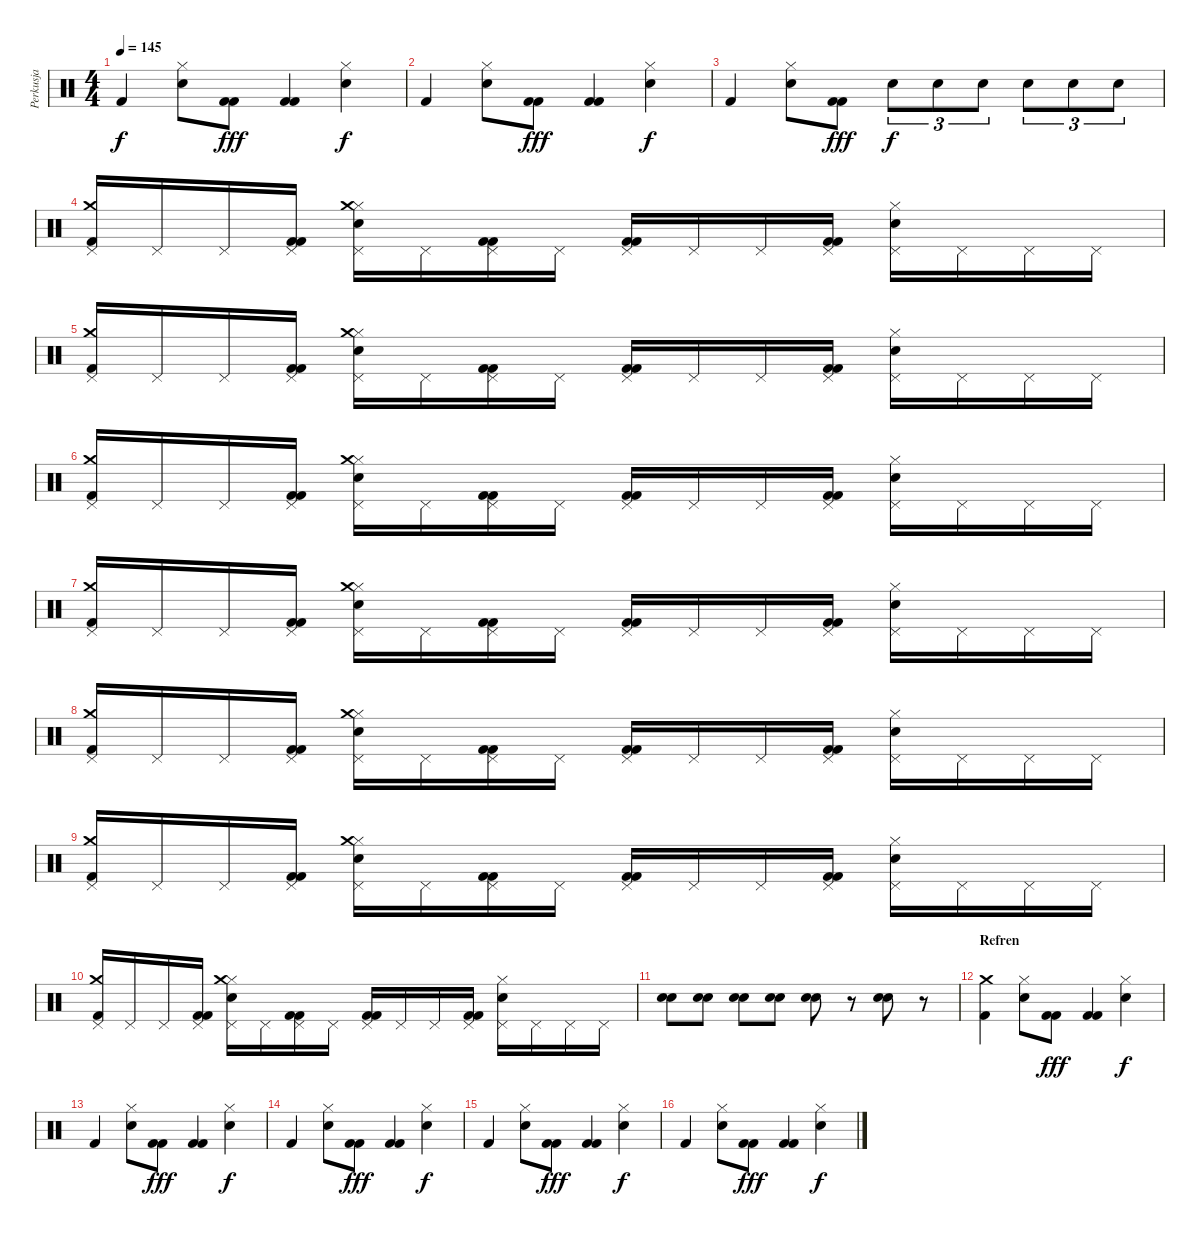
\track ("Perkusja" "Perkusja") {instrument percussion}
\staff {score}
\articulation defaults
\ts (4 4)
\tempo 145
\clef neutral
\ks c "Kick (hit) 2".4{dy f}
("Hi-Hat (closed)" "Snare (hit) 2").8 ("Kick (hit) 2" "Kick (hit) 2").8{dy fff} ("Kick (hit) 2" "Kick (hit) 2").4 ("Hi-Hat (closed)" "Snare (hit) 2").4{dy f} |
"Kick (hit) 2".4 ("Hi-Hat (closed)" "Snare (hit) 2").8 ("Kick (hit) 2" "Kick (hit) 2").8{dy fff} ("Kick (hit) 2" "Kick (hit) 2").4 ("Hi-Hat (closed)" "Snare (hit) 2").4{dy f} |
"Kick (hit) 2".4 ("Hi-Hat (closed)" "Snare (hit) 2").8 ("Kick (hit) 2" "Kick (hit) 2").8{dy fff} "Snare (hit) 2".8{tu (3 2) dy f} "Snare (hit) 2".8{tu (3 2)} "Snare (hit) 2".8{tu (3 2)} "Snare (hit) 2".8{tu (3 2)} "Snare (hit) 2".8{tu (3 2)} "Snare (hit) 2".8{tu (3 2)} |
("Kick (hit) 2" "Crash medium (hit)" "Pedal Hi-Hat (hit)").16 "Pedal Hi-Hat (hit)".16 "Pedal Hi-Hat (hit)".16 ("Kick (hit) 2" "Kick (hit) 2" "Pedal Hi-Hat (hit)").16 ("Hi-Hat (closed)" "Snare (hit) 2" "Crash medium (hit)" "Pedal Hi-Hat (hit)").16 "Pedal Hi-Hat (hit)".16 ("Kick (hit) 2" "Kick (hit) 2" "Pedal Hi-Hat (hit)").16 "Pedal Hi-Hat (hit)".16 ("Kick (hit) 2" "Kick (hit) 2" "Pedal Hi-Hat (hit)").16 "Pedal Hi-Hat (hit)".16 "Pedal Hi-Hat (hit)".16 ("Kick (hit) 2" "Kick (hit) 2" "Pedal Hi-Hat (hit)").16 ("Hi-Hat (closed)" "Snare (hit) 2" "Pedal Hi-Hat (hit)").16 "Pedal Hi-Hat (hit)".16 "Pedal Hi-Hat (hit)".16 "Pedal Hi-Hat (hit)".16 |
("Kick (hit) 2" "Crash medium (hit)" "Pedal Hi-Hat (hit)").16 "Pedal Hi-Hat (hit)".16 "Pedal Hi-Hat (hit)".16 ("Kick (hit) 2" "Kick (hit) 2" "Pedal Hi-Hat (hit)").16 ("Hi-Hat (closed)" "Snare (hit) 2" "Crash medium (hit)" "Pedal Hi-Hat (hit)").16 "Pedal Hi-Hat (hit)".16 ("Kick (hit) 2" "Kick (hit) 2" "Pedal Hi-Hat (hit)").16 "Pedal Hi-Hat (hit)".16 ("Kick (hit) 2" "Kick (hit) 2" "Pedal Hi-Hat (hit)").16 "Pedal Hi-Hat (hit)".16 "Pedal Hi-Hat (hit)".16 ("Kick (hit) 2" "Kick (hit) 2" "Pedal Hi-Hat (hit)").16 ("Hi-Hat (closed)" "Snare (hit) 2" "Pedal Hi-Hat (hit)").16 "Pedal Hi-Hat (hit)".16 "Pedal Hi-Hat (hit)".16 "Pedal Hi-Hat (hit)".16 |
("Kick (hit) 2" "Crash medium (hit)" "Pedal Hi-Hat (hit)").16 "Pedal Hi-Hat (hit)".16 "Pedal Hi-Hat (hit)".16 ("Kick (hit) 2" "Kick (hit) 2" "Pedal Hi-Hat (hit)").16 ("Hi-Hat (closed)" "Snare (hit) 2" "Crash medium (hit)" "Pedal Hi-Hat (hit)").16 "Pedal Hi-Hat (hit)".16 ("Kick (hit) 2" "Kick (hit) 2" "Pedal Hi-Hat (hit)").16 "Pedal Hi-Hat (hit)".16 ("Kick (hit) 2" "Kick (hit) 2" "Pedal Hi-Hat (hit)").16 "Pedal Hi-Hat (hit)".16 "Pedal Hi-Hat (hit)".16 ("Kick (hit) 2" "Kick (hit) 2" "Pedal Hi-Hat (hit)").16 ("Hi-Hat (closed)" "Snare (hit) 2" "Pedal Hi-Hat (hit)").16 "Pedal Hi-Hat (hit)".16 "Pedal Hi-Hat (hit)".16 "Pedal Hi-Hat (hit)".16 |
("Kick (hit) 2" "Crash medium (hit)" "Pedal Hi-Hat (hit)").16 "Pedal Hi-Hat (hit)".16 "Pedal Hi-Hat (hit)".16 ("Kick (hit) 2" "Kick (hit) 2" "Pedal Hi-Hat (hit)").16 ("Hi-Hat (closed)" "Snare (hit) 2" "Crash medium (hit)" "Pedal Hi-Hat (hit)").16 "Pedal Hi-Hat (hit)".16 ("Kick (hit) 2" "Kick (hit) 2" "Pedal Hi-Hat (hit)").16 "Pedal Hi-Hat (hit)".16 ("Kick (hit) 2" "Kick (hit) 2" "Pedal Hi-Hat (hit)").16 "Pedal Hi-Hat (hit)".16 "Pedal Hi-Hat (hit)".16 ("Kick (hit) 2" "Kick (hit) 2" "Pedal Hi-Hat (hit)").16 ("Hi-Hat (closed)" "Snare (hit) 2" "Pedal Hi-Hat (hit)").16 "Pedal Hi-Hat (hit)".16 "Pedal Hi-Hat (hit)".16 "Pedal Hi-Hat (hit)".16 |
("Kick (hit) 2" "Crash medium (hit)" "Pedal Hi-Hat (hit)").16 "Pedal Hi-Hat (hit)".16 "Pedal Hi-Hat (hit)".16 ("Kick (hit) 2" "Kick (hit) 2" "Pedal Hi-Hat (hit)").16 ("Hi-Hat (closed)" "Snare (hit) 2" "Crash medium (hit)" "Pedal Hi-Hat (hit)").16 "Pedal Hi-Hat (hit)".16 ("Kick (hit) 2" "Kick (hit) 2" "Pedal Hi-Hat (hit)").16 "Pedal Hi-Hat (hit)".16 ("Kick (hit) 2" "Kick (hit) 2" "Pedal Hi-Hat (hit)").16 "Pedal Hi-Hat (hit)".16 "Pedal Hi-Hat (hit)".16 ("Kick (hit) 2" "Kick (hit) 2" "Pedal Hi-Hat (hit)").16 ("Hi-Hat (closed)" "Snare (hit) 2" "Pedal Hi-Hat (hit)").16 "Pedal Hi-Hat (hit)".16 "Pedal Hi-Hat (hit)".16 "Pedal Hi-Hat (hit)".16 |
("Kick (hit) 2" "Crash medium (hit)" "Pedal Hi-Hat (hit)").16 "Pedal Hi-Hat (hit)".16 "Pedal Hi-Hat (hit)".16 ("Kick (hit) 2" "Kick (hit) 2" "Pedal Hi-Hat (hit)").16 ("Hi-Hat (closed)" "Snare (hit) 2" "Crash medium (hit)" "Pedal Hi-Hat (hit)").16 "Pedal Hi-Hat (hit)".16 ("Kick (hit) 2" "Kick (hit) 2" "Pedal Hi-Hat (hit)").16 "Pedal Hi-Hat (hit)".16 ("Kick (hit) 2" "Kick (hit) 2" "Pedal Hi-Hat (hit)").16 "Pedal Hi-Hat (hit)".16 "Pedal Hi-Hat (hit)".16 ("Kick (hit) 2" "Kick (hit) 2" "Pedal Hi-Hat (hit)").16 ("Hi-Hat (closed)" "Snare (hit) 2" "Pedal Hi-Hat (hit)").16 "Pedal Hi-Hat (hit)".16 "Pedal Hi-Hat (hit)".16 "Pedal Hi-Hat (hit)".16 |
("Kick (hit) 2" "Crash medium (hit)" "Pedal Hi-Hat (hit)").16 "Pedal Hi-Hat (hit)".16 "Pedal Hi-Hat (hit)".16 ("Kick (hit) 2" "Kick (hit) 2" "Pedal Hi-Hat (hit)").16 ("Hi-Hat (closed)" "Snare (hit) 2" "Crash medium (hit)" "Pedal Hi-Hat (hit)").16 "Pedal Hi-Hat (hit)".16 ("Kick (hit) 2" "Kick (hit) 2" "Pedal Hi-Hat (hit)").16 "Pedal Hi-Hat (hit)".16 ("Kick (hit) 2" "Kick (hit) 2" "Pedal Hi-Hat (hit)").16 "Pedal Hi-Hat (hit)".16 "Pedal Hi-Hat (hit)".16 ("Kick (hit) 2" "Kick (hit) 2" "Pedal Hi-Hat (hit)").16 ("Hi-Hat (closed)" "Snare (hit) 2" "Pedal Hi-Hat (hit)").16 "Pedal Hi-Hat (hit)".16 "Pedal Hi-Hat (hit)".16 "Pedal Hi-Hat (hit)".16 |
("Snare (hit) 2" "Snare (hit) 2").8 ("Snare (hit) 2" "Snare (hit) 2").8 ("Snare (hit) 2" "Snare (hit) 2").8 ("Snare (hit) 2" "Snare (hit) 2").8 ("Snare (hit) 2" "Snare (hit) 2").8 r.8 ("Snare (hit) 2" "Snare (hit) 2").8 r.8 |
\section ("" "Refren")
("Kick (hit) 2" "Crash medium (hit)").4 ("Hi-Hat (closed)" "Snare (hit) 2").8 ("Kick (hit) 2" "Kick (hit) 2").8{dy fff} ("Kick (hit) 2" "Kick (hit) 2").4 ("Hi-Hat (closed)" "Snare (hit) 2").4{dy f} |
"Kick (hit) 2".4 ("Hi-Hat (closed)" "Snare (hit) 2").8 ("Kick (hit) 2" "Kick (hit) 2").8{dy fff} ("Kick (hit) 2" "Kick (hit) 2").4 ("Hi-Hat (closed)" "Snare (hit) 2").4{dy f} |
"Kick (hit) 2".4 ("Hi-Hat (closed)" "Snare (hit) 2").8 ("Kick (hit) 2" "Kick (hit) 2").8{dy fff} ("Kick (hit) 2" "Kick (hit) 2").4 ("Hi-Hat (closed)" "Snare (hit) 2").4{dy f} |
"Kick (hit) 2".4 ("Hi-Hat (closed)" "Snare (hit) 2").8 ("Kick (hit) 2" "Kick (hit) 2").8{dy fff} ("Kick (hit) 2" "Kick (hit) 2").4 ("Hi-Hat (closed)" "Snare (hit) 2").4{dy f} |
"Kick (hit) 2".4 ("Hi-Hat (closed)" "Snare (hit) 2").8 ("Kick (hit) 2" "Kick (hit) 2").8{dy fff} ("Kick (hit) 2" "Kick (hit) 2").4 ("Hi-Hat (closed)" "Snare (hit) 2").4{dy f}
